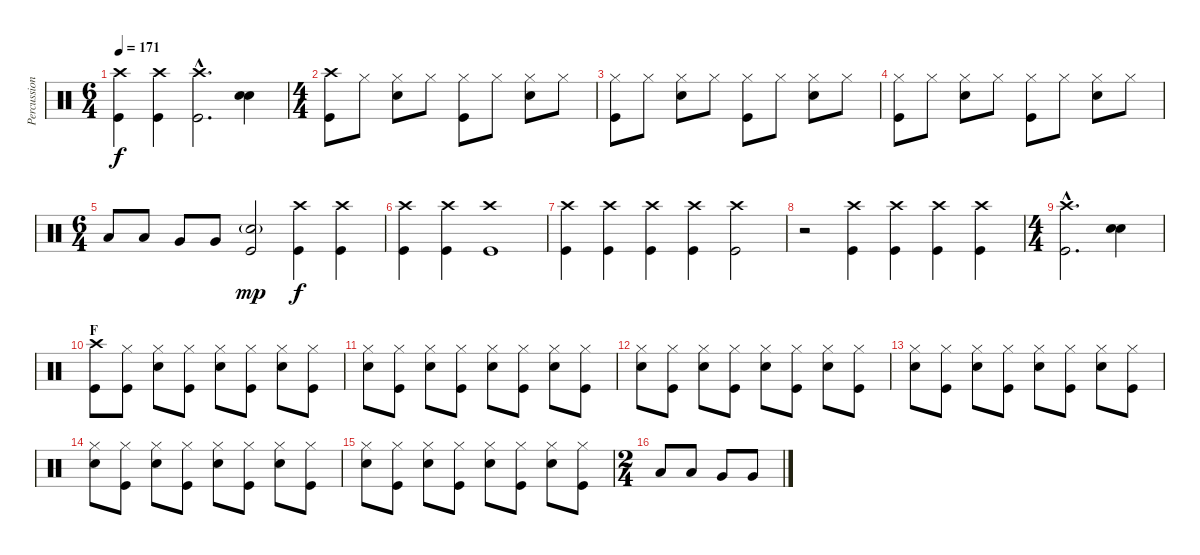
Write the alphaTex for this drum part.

\track ("Percussions" "Percussion") {instrument percussion}
\staff {score}
\articulation defaults
\ts (6 4)
\tempo 171
\clef neutral
\ks c
("Crash high (hit)" "Kick (hit)").4{dy f} ("Crash high (hit)" "Kick (hit)").4 ("Crash high (hit)"{hac} "Kick (hit)"{hac}).2{d} ("Electric Snare (hit)" "Electric Snare (hit)").4{bd 120} |
\ts (4 4)
("Crash high (hit)" "Kick (hit)").8 "Hi-Hat (closed)".8 ("Hi-Hat (closed)" "Electric Snare (hit)").8 "Hi-Hat (closed)".8 ("Hi-Hat (closed)" "Kick (hit)").8 "Hi-Hat (closed)".8 ("Hi-Hat (closed)" "Electric Snare (hit)").8 "Hi-Hat (closed)".8 |
("Hi-Hat (closed)" "Kick (hit)").8 "Hi-Hat (closed)".8 ("Hi-Hat (closed)" "Electric Snare (hit)").8 "Hi-Hat (closed)".8 ("Hi-Hat (closed)" "Kick (hit)").8 "Hi-Hat (closed)".8 ("Hi-Hat (closed)" "Electric Snare (hit)").8 "Hi-Hat (closed)".8 |
("Hi-Hat (closed)" "Kick (hit)").8 "Hi-Hat (closed)".8 ("Hi-Hat (closed)" "Electric Snare (hit)").8 "Hi-Hat (closed)".8 ("Hi-Hat (closed)" "Kick (hit)").8 "Hi-Hat (closed)".8 ("Hi-Hat (closed)" "Electric Snare (hit)").8 "Hi-Hat (closed)".8 |
\ts (6 4)
"Low Tom (hit)".8 "Low Tom (hit)".8 "Very Low Tom (hit)".8 "Very Low Tom (hit)".8 ("Electric Snare (hit)"{g} "Kick (hit)").2{dy mp} ("Crash high (hit)" "Kick (hit)").4{dy f} ("Crash high (hit)" "Kick (hit)").4 |
("Crash high (hit)" "Kick (hit)").4 ("Crash high (hit)" "Kick (hit)").4 ("Crash high (hit)" "Kick (hit)").1 |
("Crash high (hit)" "Kick (hit)").4 ("Crash high (hit)" "Kick (hit)").4 ("Crash high (hit)" "Kick (hit)").4 ("Crash high (hit)" "Kick (hit)").4 ("Crash high (hit)" "Kick (hit)").2 |
r.2 ("Crash high (hit)" "Kick (hit)").4 ("Crash high (hit)" "Kick (hit)").4 ("Crash high (hit)" "Kick (hit)").4 ("Crash high (hit)" "Kick (hit)").4 |
\ts (4 4)
("Crash high (hit)"{hac} "Kick (hit)"{hac}).2{d} ("Electric Snare (hit)" "Electric Snare (hit)").4{bd 120} |
\section ("" "F")
("Crash high (hit)" "Kick (hit)").8 ("Hi-Hat (closed)" "Kick (hit)").8 ("Hi-Hat (closed)" "Electric Snare (hit)").8 ("Hi-Hat (closed)" "Kick (hit)").8 ("Hi-Hat (closed)" "Electric Snare (hit)").8 ("Hi-Hat (closed)" "Kick (hit)").8 ("Hi-Hat (closed)" "Electric Snare (hit)").8 ("Hi-Hat (closed)" "Kick (hit)").8 |
("Hi-Hat (closed)" "Electric Snare (hit)").8 ("Hi-Hat (closed)" "Kick (hit)").8 ("Hi-Hat (closed)" "Electric Snare (hit)").8 ("Hi-Hat (closed)" "Kick (hit)").8 ("Hi-Hat (closed)" "Electric Snare (hit)").8 ("Hi-Hat (closed)" "Kick (hit)").8 ("Hi-Hat (closed)" "Electric Snare (hit)").8 ("Hi-Hat (closed)" "Kick (hit)").8 |
("Hi-Hat (closed)" "Electric Snare (hit)").8 ("Hi-Hat (closed)" "Kick (hit)").8 ("Hi-Hat (closed)" "Electric Snare (hit)").8 ("Hi-Hat (closed)" "Kick (hit)").8 ("Hi-Hat (closed)" "Electric Snare (hit)").8 ("Hi-Hat (closed)" "Kick (hit)").8 ("Hi-Hat (closed)" "Electric Snare (hit)").8 ("Hi-Hat (closed)" "Kick (hit)").8 |
("Hi-Hat (closed)" "Electric Snare (hit)").8 ("Hi-Hat (closed)" "Kick (hit)").8 ("Hi-Hat (closed)" "Electric Snare (hit)").8 ("Hi-Hat (closed)" "Kick (hit)").8 ("Hi-Hat (closed)" "Electric Snare (hit)").8 ("Hi-Hat (closed)" "Kick (hit)").8 ("Hi-Hat (closed)" "Electric Snare (hit)").8 ("Hi-Hat (closed)" "Kick (hit)").8 |
("Hi-Hat (closed)" "Electric Snare (hit)").8 ("Hi-Hat (closed)" "Kick (hit)").8 ("Hi-Hat (closed)" "Electric Snare (hit)").8 ("Hi-Hat (closed)" "Kick (hit)").8 ("Hi-Hat (closed)" "Electric Snare (hit)").8 ("Hi-Hat (closed)" "Kick (hit)").8 ("Hi-Hat (closed)" "Electric Snare (hit)").8 ("Hi-Hat (closed)" "Kick (hit)").8 |
("Hi-Hat (closed)" "Electric Snare (hit)").8 ("Hi-Hat (closed)" "Kick (hit)").8 ("Hi-Hat (closed)" "Electric Snare (hit)").8 ("Hi-Hat (closed)" "Kick (hit)").8 ("Hi-Hat (closed)" "Electric Snare (hit)").8 ("Hi-Hat (closed)" "Kick (hit)").8 ("Hi-Hat (closed)" "Electric Snare (hit)").8 ("Hi-Hat (closed)" "Kick (hit)").8 |
\ts (2 4)
"Low Tom (hit)".8 "Low Tom (hit)".8 "Very Low Tom (hit)".8 "Very Low Tom (hit)".8
